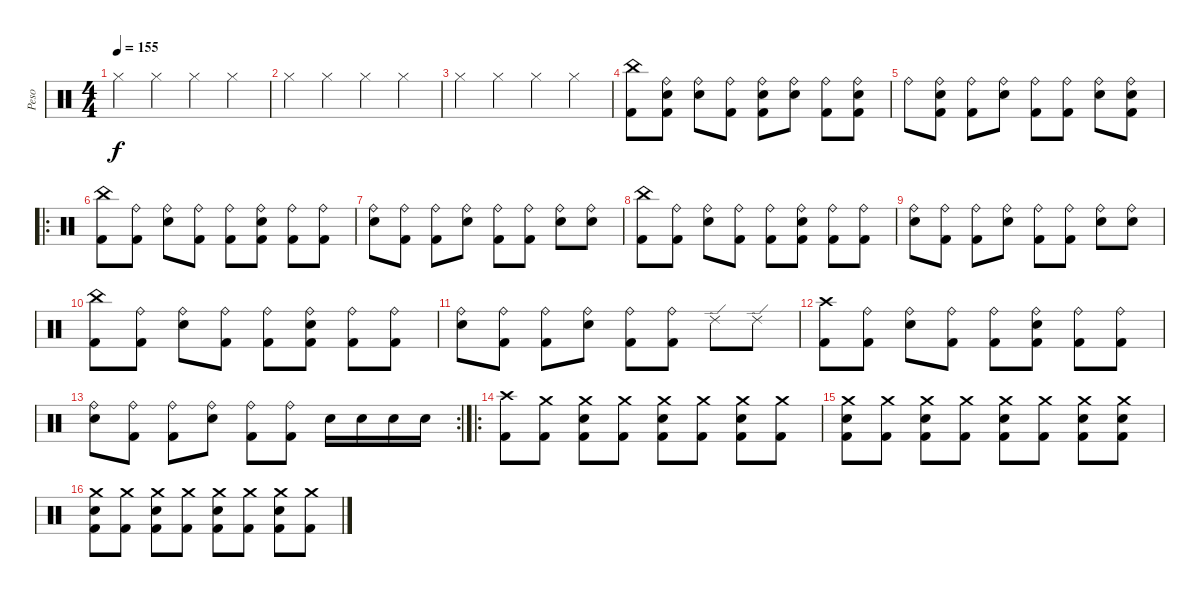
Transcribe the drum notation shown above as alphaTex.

\track ("Peso" "Peso") {instrument percussion}
\staff {score}
\articulation defaults
\ts (4 4)
\tempo 155
\clef neutral
\ks c "Hi-Hat (closed)".4{dy f} "Hi-Hat (closed)"{x}.4 "Hi-Hat (closed)"{x}.4 "Hi-Hat (closed)"{x}.4
|
"Hi-Hat (closed)".4 "Hi-Hat (closed)"{x}.4 "Hi-Hat (closed)"{x}.4 "Hi-Hat (closed)"{x}.4 |
"Hi-Hat (closed)".4 "Hi-Hat (closed)"{x}.4 "Hi-Hat (closed)"{x}.4 "Hi-Hat (closed)"{x}.4 |
("China (hit)" "Kick (hit) 2").8 ("Ride (bell)" "Snare (hit) 2" "Kick (hit) 2").8 ("Ride (bell)" "Snare (hit) 2").8 ("Ride (bell)" "Kick (hit) 2").8 ("Ride (bell)" "Snare (hit) 2" "Kick (hit) 2").8 ("Ride (bell)" "Snare (hit) 2").8 ("Ride (bell)" "Kick (hit) 2").8 ("Ride (bell)" "Snare (hit) 2" "Kick (hit) 2").8 |
"Ride (bell)".8 ("Ride (bell)" "Snare (hit) 2" "Kick (hit) 2").8 ("Ride (bell)" "Kick (hit) 2").8 ("Ride (bell)" "Snare (hit) 2").8 ("Ride (bell)" "Kick (hit) 2").8 ("Ride (bell)" "Kick (hit) 2").8 ("Ride (bell)" "Snare (hit) 2").8 ("Ride (bell)" "Snare (hit) 2" "Kick (hit) 2").8 |
\ro
("China (hit)" "Kick (hit) 2").8 ("Ride (bell)" "Kick (hit) 2").8 ("Ride (bell)" "Snare (hit) 2").8 ("Ride (bell)" "Kick (hit) 2").8 ("Ride (bell)" "Kick (hit) 2").8 ("Ride (bell)" "Snare (hit) 2" "Kick (hit) 2").8 ("Ride (bell)" "Kick (hit) 2").8 ("Ride (bell)" "Kick (hit) 2").8 |
("Ride (bell)" "Snare (hit) 2").8 ("Ride (bell)" "Kick (hit) 2").8 ("Ride (bell)" "Kick (hit) 2").8 ("Ride (bell)" "Snare (hit) 2").8 ("Ride (bell)" "Kick (hit) 2").8 ("Ride (bell)" "Kick (hit) 2").8 ("Ride (bell)" "Snare (hit) 2").8 ("Ride (bell)" "Snare (hit) 2").8 |
("China (hit)" "Kick (hit) 2").8 ("Ride (bell)" "Kick (hit) 2").8 ("Ride (bell)" "Snare (hit) 2").8 ("Ride (bell)" "Kick (hit) 2").8 ("Ride (bell)" "Kick (hit) 2").8 ("Ride (bell)" "Snare (hit) 2" "Kick (hit) 2").8 ("Ride (bell)" "Kick (hit) 2").8 ("Ride (bell)" "Kick (hit) 2").8 |
("Ride (bell)" "Snare (hit) 2").8 ("Ride (bell)" "Kick (hit) 2").8 ("Ride (bell)" "Kick (hit) 2").8 ("Ride (bell)" "Snare (hit) 2").8 ("Ride (bell)" "Kick (hit) 2").8 ("Ride (bell)" "Kick (hit) 2").8 ("Ride (bell)" "Snare (hit) 2").8 ("Ride (bell)" "Snare (hit) 2").8 |
("China (hit)" "Kick (hit) 2").8 ("Ride (bell)" "Kick (hit) 2").8 ("Ride (bell)" "Snare (hit) 2").8 ("Ride (bell)" "Kick (hit) 2").8 ("Ride (bell)" "Kick (hit) 2").8 ("Ride (bell)" "Snare (hit) 2" "Kick (hit) 2").8 ("Ride (bell)" "Kick (hit) 2").8 ("Ride (bell)" "Kick (hit) 2").8 |
("Ride (bell)" "Snare (hit) 2").8 ("Ride (bell)" "Kick (hit) 2").8 ("Ride (bell)" "Kick (hit) 2").8 ("Ride (bell)" "Snare (hit) 2").8 ("Ride (bell)" "Kick (hit) 2").8 ("Ride (bell)" "Kick (hit) 2").8 "Ride (edge) 2".8 "Ride (edge) 2".8 |
("Crash high (hit)" "Kick (hit) 2").8 ("Ride (bell)" "Kick (hit) 2").8 ("Ride (bell)" "Snare (hit) 2").8 ("Ride (bell)" "Kick (hit) 2").8 ("Ride (bell)" "Kick (hit) 2").8 ("Ride (bell)" "Snare (hit) 2" "Kick (hit) 2").8 ("Ride (bell)" "Kick (hit) 2").8 ("Ride (bell)" "Kick (hit) 2").8 |
\rc 2
("Ride (bell)" "Snare (hit) 2").8 ("Ride (bell)" "Kick (hit) 2").8 ("Ride (bell)" "Kick (hit) 2").8 ("Ride (bell)" "Snare (hit) 2").8 ("Ride (bell)" "Kick (hit) 2").8 ("Ride (bell)" "Kick (hit) 2").8 "Snare (hit) 2".16 "Snare (hit) 2".16 "Snare (hit) 2".16 "Snare (hit) 2".16 |
\ro
("Crash high (hit)" "Kick (hit) 2").8 ("Crash medium (hit)" "Kick (hit) 2").8 ("Crash medium (hit)" "Snare (hit) 2" "Kick (hit) 2").8 ("Crash medium (hit)" "Kick (hit) 2").8 ("Crash medium (hit)" "Snare (hit) 2" "Kick (hit) 2").8 ("Crash medium (hit)" "Kick (hit) 2").8 ("Crash medium (hit)" "Snare (hit) 2" "Kick (hit) 2").8 ("Crash medium (hit)" "Kick (hit) 2").8 |
("Crash medium (hit)" "Snare (hit) 2" "Kick (hit) 2").8 ("Crash medium (hit)" "Kick (hit) 2").8 ("Crash medium (hit)" "Snare (hit) 2" "Kick (hit) 2").8 ("Crash medium (hit)" "Kick (hit) 2").8 ("Crash medium (hit)" "Snare (hit) 2" "Kick (hit) 2").8 ("Crash medium (hit)" "Kick (hit) 2").8 ("Crash medium (hit)" "Snare (hit) 2" "Kick (hit) 2").8 ("Crash medium (hit)" "Snare (hit) 2" "Kick (hit) 2").8 |
("Crash medium (hit)" "Snare (hit) 2" "Kick (hit) 2").8 ("Crash medium (hit)" "Kick (hit) 2").8 ("Crash medium (hit)" "Snare (hit) 2" "Kick (hit) 2").8 ("Crash medium (hit)" "Kick (hit) 2").8 ("Crash medium (hit)" "Snare (hit) 2" "Kick (hit) 2").8 ("Crash medium (hit)" "Kick (hit) 2").8 ("Crash medium (hit)" "Snare (hit) 2" "Kick (hit) 2").8 ("Crash medium (hit)" "Kick (hit) 2").8
